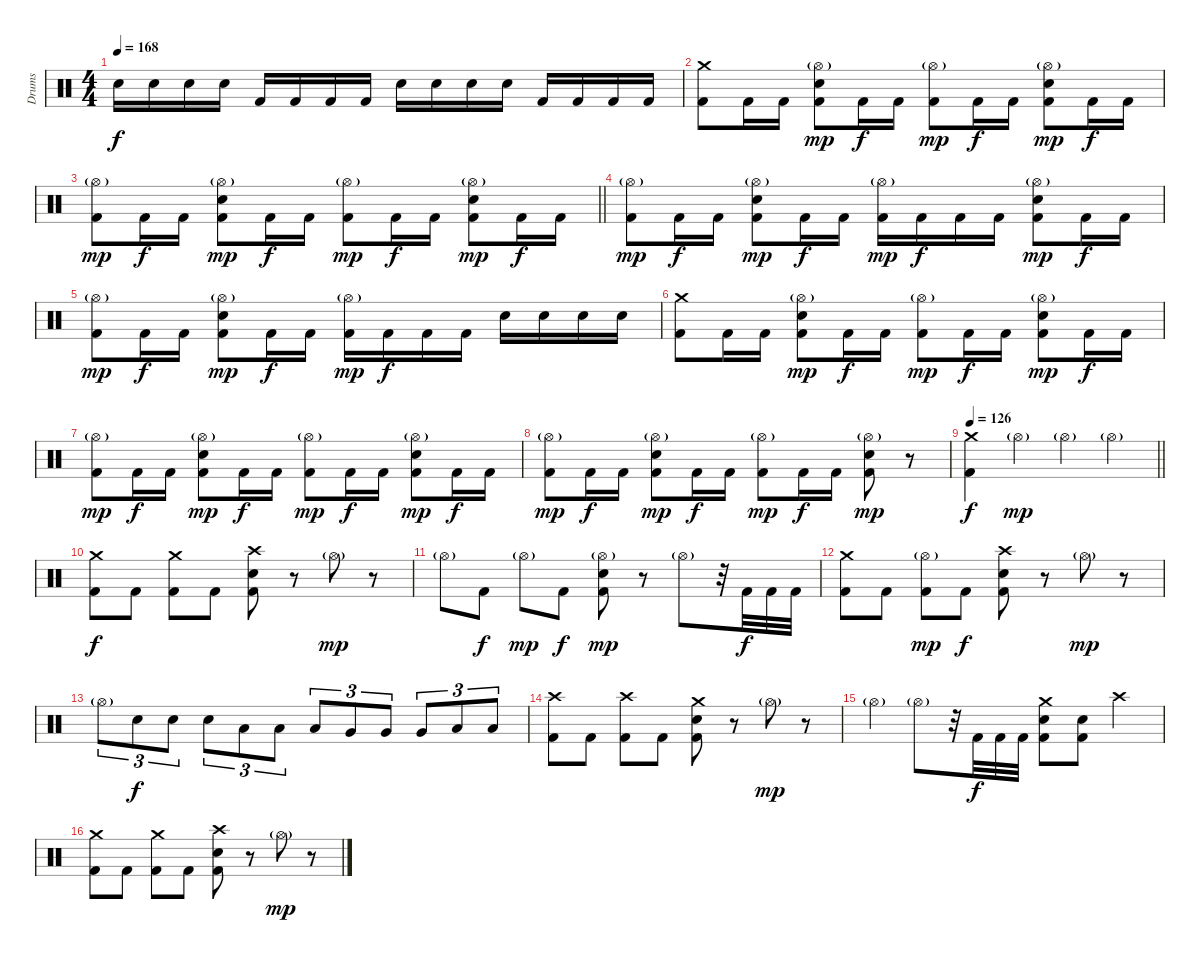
\track ("Drums" "Drums") {instrument percussion}
\staff {score}
\articulation defaults
\ts (4 4)
\tempo 168
\clef neutral
\ks c "Snare (hit) 2".16{dy f} "Snare (hit) 2".16 "Snare (hit) 2".16 "Snare (hit) 2".16 "Kick (hit) 2".16 "Kick (hit) 2".16 "Kick (hit) 2".16 "Kick (hit) 2".16 "Snare (hit) 2".16 "Snare (hit) 2".16 "Snare (hit) 2".16 "Snare (hit) 2".16 "Kick (hit) 2".16 "Kick (hit) 2".16 "Kick (hit) 2".16 "Kick (hit) 2".16
|
("Crash medium (hit)" "Kick (hit) 2").8 "Kick (hit) 2".16 "Kick (hit) 2".16 ("Snare (hit) 2" "Hi-Hat (open)"{g} "Kick (hit) 2").8{dy mp} "Kick (hit) 2".16{dy f} "Kick (hit) 2".16 ("Hi-Hat (open)"{g} "Kick (hit) 2").8{dy mp} "Kick (hit) 2".16{dy f} "Kick (hit) 2".16 ("Snare (hit) 2" "Hi-Hat (open)"{g} "Kick (hit) 2").8{dy mp} "Kick (hit) 2".16{dy f} "Kick (hit) 2".16 |
\barLineRight lightlight
("Hi-Hat (open)"{g} "Kick (hit) 2").8{dy mp} "Kick (hit) 2".16{dy f} "Kick (hit) 2".16 ("Snare (hit) 2" "Hi-Hat (open)"{g} "Kick (hit) 2").8{dy mp} "Kick (hit) 2".16{dy f} "Kick (hit) 2".16 ("Hi-Hat (open)"{g} "Kick (hit) 2").8{dy mp} "Kick (hit) 2".16{dy f} "Kick (hit) 2".16 ("Snare (hit) 2" "Hi-Hat (open)"{g} "Kick (hit) 2").8{dy mp} "Kick (hit) 2".16{dy f} "Kick (hit) 2".16 |
("Hi-Hat (open)"{g} "Kick (hit) 2").8{dy mp} "Kick (hit) 2".16{dy f} "Kick (hit) 2".16 ("Snare (hit) 2" "Hi-Hat (open)"{g} "Kick (hit) 2").8{dy mp} "Kick (hit) 2".16{dy f} "Kick (hit) 2".16 ("Hi-Hat (open)"{g} "Kick (hit) 2").16{dy mp} "Kick (hit) 2".16{dy f} "Kick (hit) 2".16 "Kick (hit) 2".16 ("Snare (hit) 2" "Hi-Hat (open)"{g} "Kick (hit) 2").8{dy mp} "Kick (hit) 2".16{dy f} "Kick (hit) 2".16 |
("Hi-Hat (open)"{g} "Kick (hit) 2").8{dy mp} "Kick (hit) 2".16{dy f} "Kick (hit) 2".16 ("Snare (hit) 2" "Hi-Hat (open)"{g} "Kick (hit) 2").8{dy mp} "Kick (hit) 2".16{dy f} "Kick (hit) 2".16 ("Hi-Hat (open)"{g} "Kick (hit) 2").16{dy mp} "Kick (hit) 2".16{dy f} "Kick (hit) 2".16 "Kick (hit) 2".16 "Snare (hit) 2".16 "Snare (hit) 2".16 "Snare (hit) 2".16 "Snare (hit) 2".16 |
("Crash medium (hit)" "Kick (hit) 2").8 "Kick (hit) 2".16 "Kick (hit) 2".16 ("Snare (hit) 2" "Hi-Hat (open)"{g} "Kick (hit) 2").8{dy mp} "Kick (hit) 2".16{dy f} "Kick (hit) 2".16 ("Hi-Hat (open)"{g} "Kick (hit) 2").8{dy mp} "Kick (hit) 2".16{dy f} "Kick (hit) 2".16 ("Snare (hit) 2" "Hi-Hat (open)"{g} "Kick (hit) 2").8{dy mp} "Kick (hit) 2".16{dy f} "Kick (hit) 2".16 |
("Hi-Hat (open)"{g} "Kick (hit) 2").8{dy mp} "Kick (hit) 2".16{dy f} "Kick (hit) 2".16 ("Snare (hit) 2" "Hi-Hat (open)"{g} "Kick (hit) 2").8{dy mp} "Kick (hit) 2".16{dy f} "Kick (hit) 2".16 ("Hi-Hat (open)"{g} "Kick (hit) 2").8{dy mp} "Kick (hit) 2".16{dy f} "Kick (hit) 2".16 ("Snare (hit) 2" "Hi-Hat (open)"{g} "Kick (hit) 2").8{dy mp} "Kick (hit) 2".16{dy f} "Kick (hit) 2".16 |
("Hi-Hat (open)"{g} "Kick (hit) 2").8{dy mp} "Kick (hit) 2".16{dy f} "Kick (hit) 2".16 ("Snare (hit) 2" "Hi-Hat (open)"{g} "Kick (hit) 2").8{dy mp} "Kick (hit) 2".16{dy f} "Kick (hit) 2".16 ("Hi-Hat (open)"{g} "Kick (hit) 2").8{dy mp} "Kick (hit) 2".16{dy f} "Kick (hit) 2".16 ("Snare (hit) 2" "Hi-Hat (open)"{g} "Kick (hit) 2").8{dy mp} r.8 |
\tempo 126
\barLineRight lightlight
("Crash medium (hit)" "Kick (hit) 2").4{dy f} "Hi-Hat (open)"{g}.4{dy mp} "Hi-Hat (open)"{g}.4 "Hi-Hat (open)"{g}.4 |
("Crash medium (hit)" "Kick (hit) 2").8{dy f} "Kick (hit) 2".8 ("Crash medium (hit)" "Kick (hit) 2").8 "Kick (hit) 2".8 ("Crash high (hit)" "Snare (hit) 2" "Kick (hit) 2").8 r.8 "Hi-Hat (open)"{g}.8{dy mp} r.8 |
"Hi-Hat (open)"{g}.8 "Kick (hit) 2".8{dy f} "Hi-Hat (open)"{g}.8{dy mp} "Kick (hit) 2".8{dy f} ("Snare (hit) 2" "Hi-Hat (open)"{g} "Kick (hit) 2").8{dy mp} r.8 "Hi-Hat (open)"{g}.8 r.32 "Kick (hit) 2".32{dy f} "Kick (hit) 2".32 "Kick (hit) 2".32 |
("Crash medium (hit)" "Kick (hit) 2").8 "Kick (hit) 2".8 ("Hi-Hat (open)"{g} "Kick (hit) 2").8{dy mp} "Kick (hit) 2".8{dy f} ("Crash high (hit)" "Snare (hit) 2" "Kick (hit) 2").8 r.8 "Hi-Hat (open)"{g}.8{dy mp} r.8 |
"Hi-Hat (open)"{g}.8{tu (3 2)} "Snare (hit) 2".8{tu (3 2) dy f} "Snare (hit) 2".8{tu (3 2)} "Snare (hit) 2".8{tu (3 2)} "Low Tom (hit)".8{tu (3 2)} "Low Tom (hit)".8{tu (3 2)} "Low Tom (hit)".8{tu (3 2)} "Very Low Tom (hit)".8{tu (3 2)} "Very Low Tom (hit)".8{tu (3 2)} "Very Low Tom (hit)".8{tu (3 2)} "Low Floor Tom (hit)".8{tu (3 2)} "Low Floor Tom (hit)".8{tu (3 2)} |
("Crash high (hit)" "Kick (hit) 2").8 "Kick (hit) 2".8 ("Crash high (hit)" "Kick (hit) 2").8 "Kick (hit) 2".8 ("Crash medium (hit)" "Snare (hit) 2" "Kick (hit) 2").8 r.8 "Hi-Hat (open)"{g}.8{dy mp} r.8 |
"Hi-Hat (open)"{g}.4 "Hi-Hat (open)"{g}.8 r.32 "Kick (hit) 2".32{dy f} "Kick (hit) 2".32 "Kick (hit) 2".32 ("Crash medium (hit)" "Snare (hit) 2" "Kick (hit) 2").8 ("Snare (hit) 2" "Kick (hit) 2").8 "Crash high (hit)".4 |
("Crash medium (hit)" "Kick (hit) 2").8 "Kick (hit) 2".8 ("Crash medium (hit)" "Kick (hit) 2").8 "Kick (hit) 2".8 ("Crash high (hit)" "Snare (hit) 2" "Kick (hit) 2").8 r.8 "Hi-Hat (open)"{g}.8{dy mp} r.8
